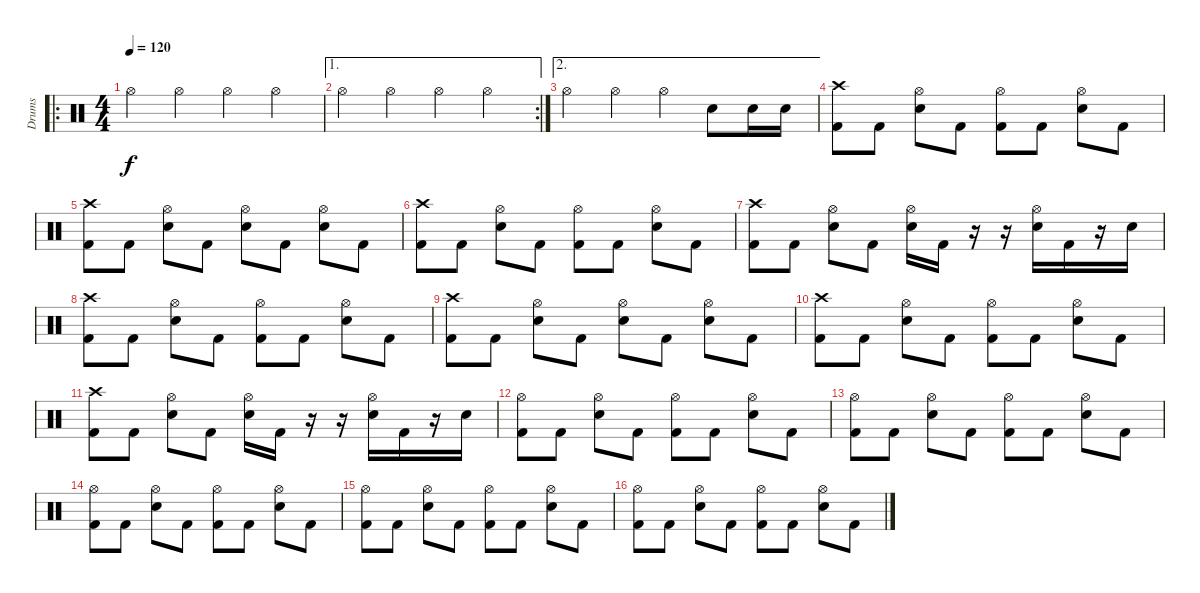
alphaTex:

\track ("Drums" "Drums") {instrument percussion}
\staff {score}
\articulation defaults
\ro
\ts (4 4)
\tempo 120
\clef neutral
\ks c "Hi-Hat (open)".4{dy f} "Hi-Hat (open)".4 "Hi-Hat (open)".4 "Hi-Hat (open)".4
|
\ae 1
\rc 2 "Hi-Hat (open)".4 "Hi-Hat (open)".4 "Hi-Hat (open)".4 "Hi-Hat (open)".4
|
\ae 2 "Hi-Hat (open)".4 "Hi-Hat (open)".4 "Hi-Hat (open)".4 "Electric Snare (hit)".8 "Electric Snare (hit)".16 "Electric Snare (hit)".16
|
("Crash high (hit)" "Kick (hit) 2").8 "Kick (hit) 2".8 ("Hi-Hat (open)" "Electric Snare (hit)").8 "Kick (hit) 2".8 ("Hi-Hat (open)" "Kick (hit) 2").8 "Kick (hit) 2".8 ("Hi-Hat (open)" "Electric Snare (hit)").8 "Kick (hit) 2".8 |
("Crash high (hit)" "Kick (hit) 2").8 "Kick (hit) 2".8 ("Hi-Hat (open)" "Electric Snare (hit)").8 "Kick (hit) 2".8 ("Hi-Hat (open)" "Electric Snare (hit)").8 "Kick (hit) 2".8 ("Hi-Hat (open)" "Electric Snare (hit)").8 "Kick (hit) 2".8 |
("Crash high (hit)" "Kick (hit) 2").8 "Kick (hit) 2".8 ("Hi-Hat (open)" "Electric Snare (hit)").8 "Kick (hit) 2".8 ("Hi-Hat (open)" "Kick (hit) 2").8 "Kick (hit) 2".8 ("Hi-Hat (open)" "Electric Snare (hit)").8 "Kick (hit) 2".8 |
("Crash high (hit)" "Kick (hit) 2").8 "Kick (hit) 2".8 ("Hi-Hat (open)" "Electric Snare (hit)").8 "Kick (hit) 2".8 ("Hi-Hat (open)" "Electric Snare (hit)").16 "Kick (hit) 2".16 r.16 r.16 ("Hi-Hat (open)" "Electric Snare (hit)").16 "Kick (hit) 2".16 r.16 "Electric Snare (hit)".16 |
("Crash high (hit)" "Kick (hit) 2").8 "Kick (hit) 2".8 ("Hi-Hat (open)" "Electric Snare (hit)").8 "Kick (hit) 2".8 ("Hi-Hat (open)" "Kick (hit) 2").8 "Kick (hit) 2".8 ("Hi-Hat (open)" "Electric Snare (hit)").8 "Kick (hit) 2".8 |
("Crash high (hit)" "Kick (hit) 2").8 "Kick (hit) 2".8 ("Hi-Hat (open)" "Electric Snare (hit)").8 "Kick (hit) 2".8 ("Hi-Hat (open)" "Electric Snare (hit)").8 "Kick (hit) 2".8 ("Hi-Hat (open)" "Electric Snare (hit)").8 "Kick (hit) 2".8 |
("Crash high (hit)" "Kick (hit) 2").8 "Kick (hit) 2".8 ("Hi-Hat (open)" "Electric Snare (hit)").8 "Kick (hit) 2".8 ("Hi-Hat (open)" "Kick (hit) 2").8 "Kick (hit) 2".8 ("Hi-Hat (open)" "Electric Snare (hit)").8 "Kick (hit) 2".8 |
("Crash high (hit)" "Kick (hit) 2").8 "Kick (hit) 2".8 ("Hi-Hat (open)" "Electric Snare (hit)").8 "Kick (hit) 2".8 ("Hi-Hat (open)" "Electric Snare (hit)").16 "Kick (hit) 2".16 r.16 r.16 ("Hi-Hat (open)" "Electric Snare (hit)").16 "Kick (hit) 2".16 r.16 "Electric Snare (hit)".16 |
("Hi-Hat (open)" "Kick (hit) 2").8 "Kick (hit) 2".8 ("Hi-Hat (open)" "Electric Snare (hit)").8 "Kick (hit) 2".8 ("Hi-Hat (open)" "Kick (hit) 2").8 "Kick (hit) 2".8 ("Hi-Hat (open)" "Electric Snare (hit)").8 "Kick (hit) 2".8 |
("Hi-Hat (open)" "Kick (hit) 2").8 "Kick (hit) 2".8 ("Hi-Hat (open)" "Electric Snare (hit)").8 "Kick (hit) 2".8 ("Hi-Hat (open)" "Kick (hit) 2").8 "Kick (hit) 2".8 ("Hi-Hat (open)" "Electric Snare (hit)").8 "Kick (hit) 2".8 |
("Hi-Hat (open)" "Kick (hit) 2").8 "Kick (hit) 2".8 ("Hi-Hat (open)" "Electric Snare (hit)").8 "Kick (hit) 2".8 ("Hi-Hat (open)" "Kick (hit) 2").8 "Kick (hit) 2".8 ("Hi-Hat (open)" "Electric Snare (hit)").8 "Kick (hit) 2".8 |
("Hi-Hat (open)" "Kick (hit) 2").8 "Kick (hit) 2".8 ("Hi-Hat (open)" "Electric Snare (hit)").8 "Kick (hit) 2".8 ("Hi-Hat (open)" "Kick (hit) 2").8 "Kick (hit) 2".8 ("Hi-Hat (open)" "Electric Snare (hit)").8 "Kick (hit) 2".8 |
("Hi-Hat (open)" "Kick (hit) 2").8 "Kick (hit) 2".8 ("Hi-Hat (open)" "Electric Snare (hit)").8 "Kick (hit) 2".8 ("Hi-Hat (open)" "Kick (hit) 2").8 "Kick (hit) 2".8 ("Hi-Hat (open)" "Electric Snare (hit)").8 "Kick (hit) 2".8
